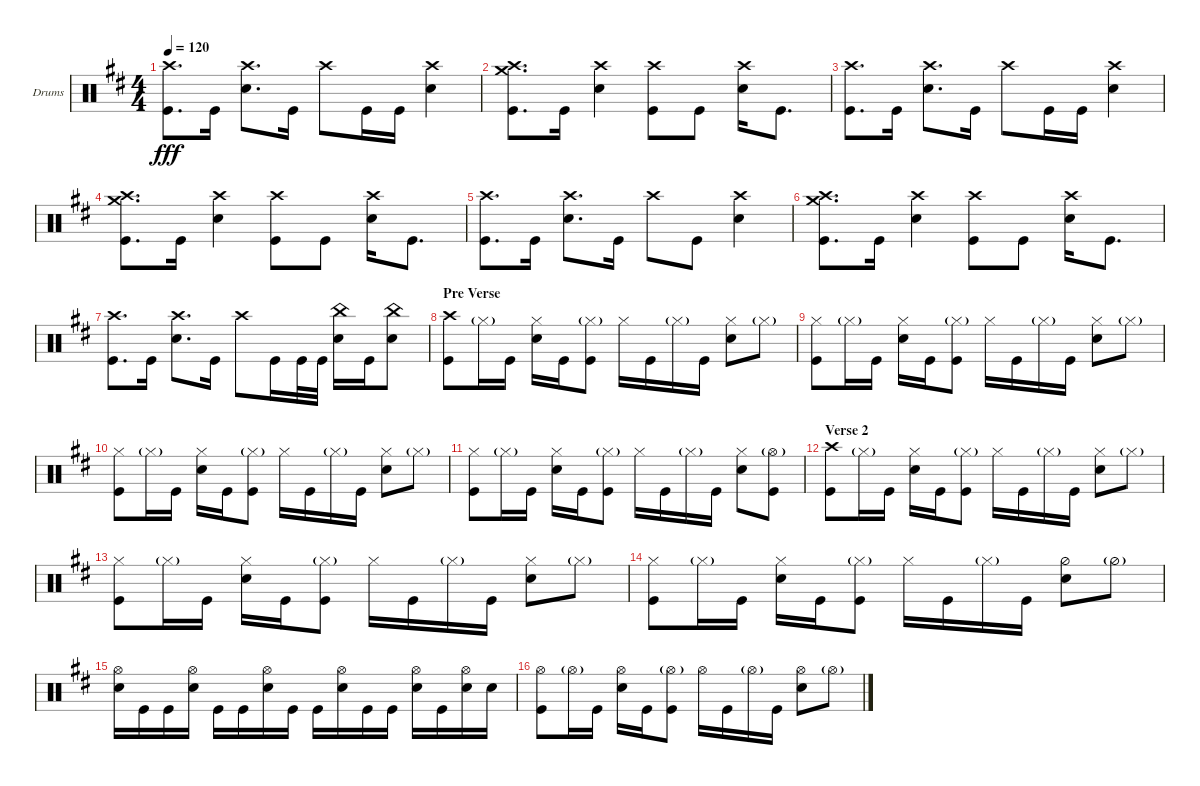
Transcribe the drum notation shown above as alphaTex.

\defaultSystemsLayout 4
\bracketExtendMode groupsimilarinstruments
\firstSystemTrackNameOrientation horizontal
\otherSystemsTrackNameOrientation horizontal
\track ("Garrett" "Drums") {instrument percussion}
\staff {score}
\articulation defaults
\ts (4 4)
\tempo 120
\clef neutral
\ks bminor
("Crash high (hit)" "Kick (hit)").8{d dy fff} "Kick (hit)".16 ("Snare (hit) 2" "Crash high (hit)").8{d} "Kick (hit)".16 "Crash high (hit)".8 "Kick (hit)".16 "Kick (hit)".16 ("Snare (hit) 2" "Crash high (hit)").4 |
("Crash high (hit)" "Kick (hit)" "Crash medium (hit)").8{d} "Kick (hit)".16 ("Snare (hit) 2" "Crash high (hit)").4 ("Crash high (hit)" "Kick (hit)").8 "Kick (hit)".8 ("Snare (hit) 2" "Crash high (hit)").16 "Kick (hit)".8{d} |
("Crash high (hit)" "Kick (hit)").8{d} "Kick (hit)".16 ("Snare (hit) 2" "Crash high (hit)").8{d} "Kick (hit)".16 "Crash high (hit)".8 "Kick (hit)".16 "Kick (hit)".16 ("Snare (hit) 2" "Crash high (hit)").4 |
("Crash high (hit)" "Kick (hit)" "Crash medium (hit)").8{d} "Kick (hit)".16 ("Snare (hit) 2" "Crash high (hit)").4 ("Crash high (hit)" "Kick (hit)").8 "Kick (hit)".8 ("Snare (hit) 2" "Crash high (hit)").16 "Kick (hit)".8{d} |
("Crash high (hit)" "Kick (hit)").8{d} "Kick (hit)".16 ("Snare (hit) 2" "Crash high (hit)").8{d} "Kick (hit)".16 "Crash high (hit)".8 "Kick (hit)".8 ("Snare (hit) 2" "Crash high (hit)").4 |
("Crash high (hit)" "Kick (hit)" "Crash medium (hit)").8{d} "Kick (hit)".16 ("Snare (hit) 2" "Crash high (hit)").4 ("Crash high (hit)" "Kick (hit)").8 "Kick (hit)".8 ("Snare (hit) 2" "Crash high (hit)").16 "Kick (hit)".8{d} |
("Crash high (hit)" "Kick (hit)").8{d} "Kick (hit)".16 ("Snare (hit) 2" "Crash high (hit)").8{d} "Kick (hit)".16 "Crash high (hit)".8 "Kick (hit)".16 "Kick (hit)".32 "Kick (hit)".32 ("Snare (hit) 2" "China (hit)").16 "Kick (hit)".16 ("Snare (hit) 2" "China (hit)").8 |
\section ("" "Pre Verse")
("Crash high (hit)" "Kick (hit)").8 "Hi-Hat (closed)"{g}.16 "Kick (hit)".16 ("Snare (hit) 2" "Hi-Hat (closed)").16 "Kick (hit)".16 ("Hi-Hat (closed)"{g} "Kick (hit)").8 "Hi-Hat (closed)".16 "Kick (hit)".16 "Hi-Hat (closed)"{g}.16 "Kick (hit)".16 ("Snare (hit) 2" "Hi-Hat (closed)").8 "Hi-Hat (closed)"{g}.8 |
("Kick (hit)" "Hi-Hat (closed)").8 "Hi-Hat (closed)"{g}.16 "Kick (hit)".16 ("Snare (hit) 2" "Hi-Hat (closed)").16 "Kick (hit)".16 ("Hi-Hat (closed)"{g} "Kick (hit)").8 "Hi-Hat (closed)".16 "Kick (hit)".16 "Hi-Hat (closed)"{g}.16 "Kick (hit)".16 ("Snare (hit) 2" "Hi-Hat (closed)").8 "Hi-Hat (closed)"{g}.8 |
("Kick (hit)" "Hi-Hat (closed)").8 "Hi-Hat (closed)"{g}.16 "Kick (hit)".16 ("Snare (hit) 2" "Hi-Hat (closed)").16 "Kick (hit)".16 ("Hi-Hat (closed)"{g} "Kick (hit)").8 "Hi-Hat (closed)".16 "Kick (hit)".16 "Hi-Hat (closed)"{g}.16 "Kick (hit)".16 ("Snare (hit) 2" "Hi-Hat (closed)").8 "Hi-Hat (closed)"{g}.8 |
("Kick (hit)" "Hi-Hat (closed)").8 "Hi-Hat (closed)"{g}.16 "Kick (hit)".16 ("Snare (hit) 2" "Hi-Hat (closed)").16 "Kick (hit)".16 ("Hi-Hat (closed)"{g} "Kick (hit)").8 "Hi-Hat (closed)".16 "Kick (hit)".16 "Hi-Hat (closed)"{g}.16 "Kick (hit)".16 ("Snare (hit) 2" "Hi-Hat (closed)").8 ("Hi-Hat (open)"{g} "Kick (hit)").8 |
\section ("" "Verse 2")
("Crash high (hit)" "Kick (hit)").8 "Hi-Hat (closed)"{g}.16 "Kick (hit)".16 ("Snare (hit) 2" "Hi-Hat (closed)").16 "Kick (hit)".16 ("Hi-Hat (closed)"{g} "Kick (hit)").8 "Hi-Hat (closed)".16 "Kick (hit)".16 "Hi-Hat (closed)"{g}.16 "Kick (hit)".16 ("Snare (hit) 2" "Hi-Hat (closed)").8 "Hi-Hat (closed)"{g}.8 |
("Kick (hit)" "Hi-Hat (closed)").8 "Hi-Hat (closed)"{g}.16 "Kick (hit)".16 ("Snare (hit) 2" "Hi-Hat (closed)").16 "Kick (hit)".16 ("Hi-Hat (closed)"{g} "Kick (hit)").8 "Hi-Hat (closed)".16 "Kick (hit)".16 "Hi-Hat (closed)"{g}.16 "Kick (hit)".16 ("Snare (hit) 2" "Hi-Hat (closed)").8 "Hi-Hat (closed)"{g}.8 |
("Kick (hit)" "Hi-Hat (closed)").8 "Hi-Hat (closed)"{g}.16 "Kick (hit)".16 ("Snare (hit) 2" "Hi-Hat (closed)").16 "Kick (hit)".16 ("Hi-Hat (closed)"{g} "Kick (hit)").8 "Hi-Hat (closed)".16 "Kick (hit)".16 "Hi-Hat (closed)"{g}.16 "Kick (hit)".16 ("Snare (hit) 2" "Hi-Hat (half)").8 "Hi-Hat (half)"{g}.8 |
("Snare (hit) 2" "Hi-Hat (open)").16 "Kick (hit)".16 "Kick (hit)".16 ("Snare (hit) 2" "Hi-Hat (open)").16 "Kick (hit)".16 "Kick (hit)".16 ("Snare (hit) 2" "Hi-Hat (open)").16 "Kick (hit)".16 "Kick (hit)".16 ("Snare (hit) 2" "Hi-Hat (open)").16 "Kick (hit)".16 "Kick (hit)".16 ("Snare (hit) 2" "Hi-Hat (open)").16 "Kick (hit)".16 ("Snare (hit) 2" "Hi-Hat (open)").16 "Snare (hit) 2".16 |
("Kick (hit)" "Hi-Hat (open)").8 "Hi-Hat (open)"{g}.16 "Kick (hit)".16 ("Snare (hit) 2" "Hi-Hat (open)").16 "Kick (hit)".16 ("Hi-Hat (open)"{g} "Kick (hit)").8 "Hi-Hat (open)".16 "Kick (hit)".16 "Hi-Hat (open)"{g}.16 "Kick (hit)".16 ("Snare (hit) 2" "Hi-Hat (open)").8 "Hi-Hat (open)"{g}.8
